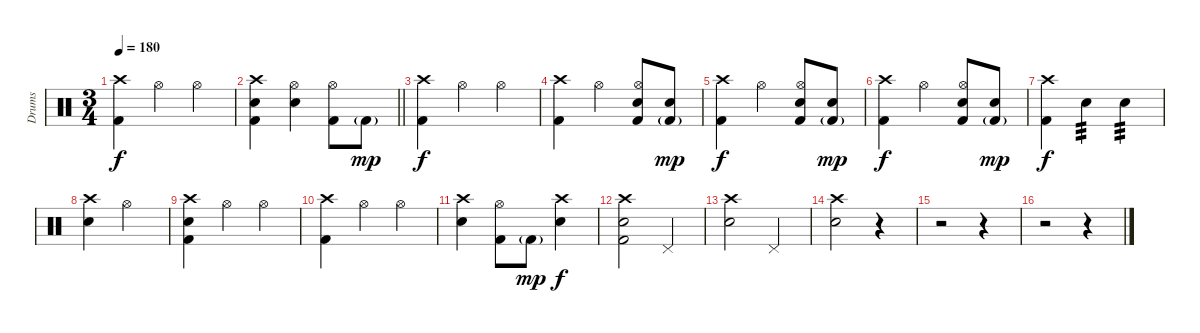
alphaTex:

\track ("Drums" "Drums") {instrument percussion}
\staff {score}
\articulation defaults
\ts (3 4)
\tempo 180
\clef neutral
\ks c
("Crash high (hit)" "Kick (hit) 2").4{dy f} "Hi-Hat (open)".4 "Hi-Hat (open)".4 |
\barLineRight lightlight
("Electric Snare (hit)" "Crash high (hit)" "Kick (hit) 2").4 ("Electric Snare (hit)" "Hi-Hat (open)").4 ("Hi-Hat (open)" "Kick (hit) 2").8 "Kick (hit) 2"{g}.8{dy mp} |
("Crash high (hit)" "Kick (hit) 2").4{dy f} "Hi-Hat (open)".4 "Hi-Hat (open)".4 |
("Crash high (hit)" "Kick (hit) 2").4 "Hi-Hat (open)".4 ("Hi-Hat (open)" "Electric Snare (hit)" "Kick (hit) 2").8 ("Electric Snare (hit)" "Kick (hit) 2"{g}).8{dy mp} |
("Crash high (hit)" "Kick (hit) 2").4{dy f} "Hi-Hat (open)".4 ("Hi-Hat (open)" "Electric Snare (hit)" "Kick (hit) 2").8 ("Electric Snare (hit)" "Kick (hit) 2"{g}).8{dy mp} |
("Crash high (hit)" "Kick (hit) 2").4{dy f} "Hi-Hat (open)".4 ("Hi-Hat (open)" "Electric Snare (hit)" "Kick (hit) 2").8 ("Electric Snare (hit)" "Kick (hit) 2"{g}).8{dy mp} |
("Crash high (hit)" "Kick (hit) 2").4{dy f} "Electric Snare (hit)".4{tp 3} "Electric Snare (hit)".4{tp 3} |
("Snare (hit) 2" "Crash high (hit)").4 "Hi-Hat (open)".2 |
("Snare (hit) 2" "Crash high (hit)" "Kick (hit) 2").4 "Hi-Hat (open)".4 "Hi-Hat (open)".4 |
("Kick (hit) 2" "Crash high (hit)").4 "Hi-Hat (open)".4 "Hi-Hat (open)".4 |
("Snare (hit) 2" "Crash high (hit)").4 ("Hi-Hat (open)" "Kick (hit) 2").8 "Kick (hit) 2"{g}.8{dy mp} ("Crash high (hit)" "Electric Snare (hit)").4{dy f} |
("Snare (hit) 2" "Crash high (hit)" "Kick (hit) 2").2 "Pedal Hi-Hat (hit)".4 |
("Electric Snare (hit)" "Crash high (hit)").2 "Pedal Hi-Hat (hit)".4 |
("Electric Snare (hit)" "Crash high (hit)").2 r.4 |
r.2 r.4 |
r.2 r.4
